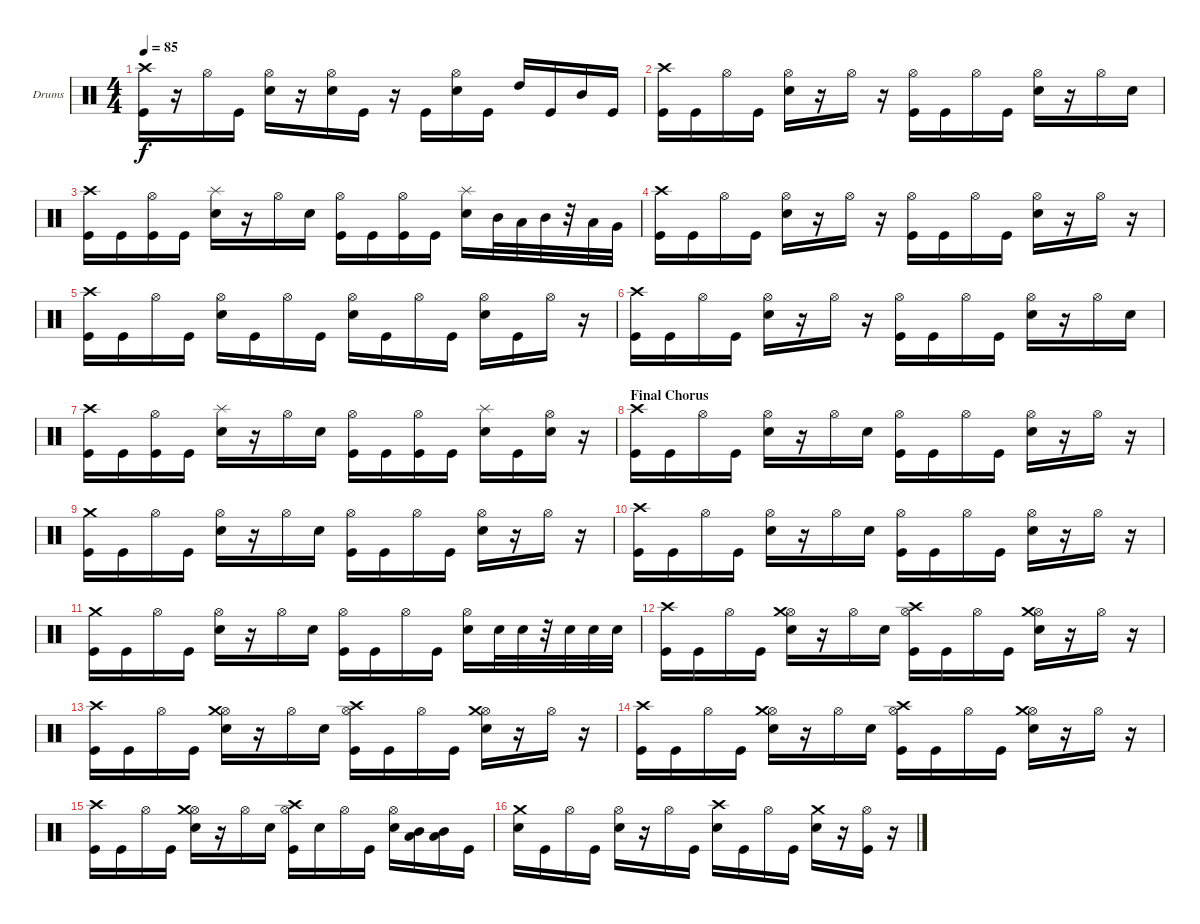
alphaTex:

\bracketExtendMode groupsimilarinstruments
\firstSystemTrackNameOrientation horizontal
\otherSystemsTrackNameOrientation horizontal
\track ("Drumkit" "Drums") {instrument percussion}
\staff {score}
\articulation defaults
\ts (4 4)
\tempo 85
\clef neutral
\ks c
("Kick (hit)" "Crash high (hit)").16{dy f} r.16 "Hi-Hat (open)".16 "Kick (hit)".16 ("Snare (hit) 2" "Hi-Hat (open)").16 r.16 ("Snare (hit) 2" "Hi-Hat (open)").16 "Kick (hit)".16 r.16 "Kick (hit)".16 ("Snare (hit) 2" "Hi-Hat (open)").16 "Kick (hit)".16 "High Tom (hit)".16 "Kick (hit)".16 "Mid Tom (hit)".16 "Kick (hit)".16 |
("Kick (hit)" "Crash high (hit)").16 "Kick (hit)".16 "Hi-Hat (open)".16 "Kick (hit)".16 ("Snare (hit) 2" "Hi-Hat (open)").16 r.16 "Hi-Hat (open)".16 r.16 ("Kick (hit)" "Hi-Hat (open)").16 "Kick (hit)".16 "Hi-Hat (open)".16 "Kick (hit)".16 ("Snare (hit) 2" "Hi-Hat (open)").16 r.16 "Hi-Hat (open)".16 "Snare (hit) 2".16 |
("Kick (hit)" "Crash high (hit)").16 "Kick (hit)".16 ("Kick (hit)" "Hi-Hat (open)").16 "Kick (hit)".16 ("Snare (hit) 2" "Splash (hit)").16 r.16 "Hi-Hat (open)".16 "Snare (hit) 2".16 ("Kick (hit)" "Hi-Hat (open)").16 "Kick (hit)".16 ("Kick (hit)" "Hi-Hat (open)").16 "Kick (hit)".16 ("Snare (hit) 2" "Splash (hit)").16 "Mid Tom (hit)".32 "Low Tom (hit)".32 "Mid Tom (hit)".32 r.32 "Low Tom (hit)".32 "Very Low Tom (hit)".32 |
("Kick (hit)" "Crash high (hit)").16 "Kick (hit)".16 "Hi-Hat (open)".16 "Kick (hit)".16 ("Snare (hit) 2" "Hi-Hat (open)").16 r.16 "Hi-Hat (open)".16 r.16 ("Kick (hit)" "Hi-Hat (open)").16 "Kick (hit)".16 "Hi-Hat (open)".16 "Kick (hit)".16 ("Snare (hit) 2" "Hi-Hat (open)").16 r.16 "Hi-Hat (open)".16 r.16 |
("Kick (hit)" "Crash high (hit)").16 "Kick (hit)".16 "Hi-Hat (open)".16 "Kick (hit)".16 ("Snare (hit) 2" "Hi-Hat (open)").16 "Kick (hit)".16 "Hi-Hat (open)".16 "Kick (hit)".16 ("Snare (hit) 2" "Hi-Hat (open)").16 "Kick (hit)".16 "Hi-Hat (open)".16 "Kick (hit)".16 ("Snare (hit) 2" "Hi-Hat (open)").16 "Kick (hit)".16 "Hi-Hat (open)".16 r.16 |
("Kick (hit)" "Crash high (hit)").16 "Kick (hit)".16 "Hi-Hat (open)".16 "Kick (hit)".16 ("Snare (hit) 2" "Hi-Hat (open)").16 r.16 "Hi-Hat (open)".16 r.16 ("Kick (hit)" "Hi-Hat (open)").16 "Kick (hit)".16 "Hi-Hat (open)".16 "Kick (hit)".16 ("Snare (hit) 2" "Hi-Hat (open)").16 r.16 "Hi-Hat (open)".16 "Snare (hit) 2".16 |
("Kick (hit)" "Crash high (hit)").16 "Kick (hit)".16 ("Kick (hit)" "Hi-Hat (open)").16 "Kick (hit)".16 ("Snare (hit) 2" "Splash (hit)").16 r.16 "Hi-Hat (open)".16 "Snare (hit) 2".16 ("Kick (hit)" "Hi-Hat (open)").16 "Kick (hit)".16 ("Kick (hit)" "Hi-Hat (open)").16 "Kick (hit)".16 ("Snare (hit) 2" "Splash (hit)").16 "Kick (hit)".16 ("Snare (hit) 2" "Hi-Hat (open)").16 r.16 |
\section ("" "Final Chorus")
("Kick (hit)" "Crash high (hit)").16 "Kick (hit)".16 "Hi-Hat (open)".16 "Kick (hit)".16 ("Snare (hit) 2" "Hi-Hat (open)").16 r.16 "Hi-Hat (open)".16 "Snare (hit) 2".16 ("Kick (hit)" "Hi-Hat (open)").16 "Kick (hit)".16 "Hi-Hat (open)".16 "Kick (hit)".16 ("Snare (hit) 2" "Hi-Hat (open)").16 r.16 "Hi-Hat (open)".16 r.16 |
("Kick (hit)" "Crash medium (hit)").16 "Kick (hit)".16 "Hi-Hat (open)".16 "Kick (hit)".16 ("Snare (hit) 2" "Hi-Hat (open)").16 r.16 "Hi-Hat (open)".16 "Snare (hit) 2".16 ("Kick (hit)" "Hi-Hat (open)").16 "Kick (hit)".16 "Hi-Hat (open)".16 "Kick (hit)".16 ("Snare (hit) 2" "Hi-Hat (open)").16 r.16 "Hi-Hat (open)".16 r.16 |
("Kick (hit)" "Crash high (hit)").16 "Kick (hit)".16 "Hi-Hat (open)".16 "Kick (hit)".16 ("Snare (hit) 2" "Hi-Hat (open)").16 r.16 "Hi-Hat (open)".16 "Snare (hit) 2".16 ("Kick (hit)" "Hi-Hat (open)").16 "Kick (hit)".16 "Hi-Hat (open)".16 "Kick (hit)".16 ("Snare (hit) 2" "Hi-Hat (open)").16 r.16 "Hi-Hat (open)".16 r.16 |
("Kick (hit)" "Crash medium (hit)").16 "Kick (hit)".16 "Hi-Hat (open)".16 "Kick (hit)".16 ("Snare (hit) 2" "Hi-Hat (open)").16 r.16 "Hi-Hat (open)".16 "Snare (hit) 2".16 ("Kick (hit)" "Hi-Hat (open)").16 "Kick (hit)".16 "Hi-Hat (open)".16 "Kick (hit)".16 ("Snare (hit) 2" "Hi-Hat (open)").16 "Snare (hit) 2".32 "Snare (hit) 2".32 r.32 "Snare (hit) 2".32 "Snare (hit) 2".32 "Snare (hit) 2".32 |
("Kick (hit)" "Crash high (hit)").16 "Kick (hit)".16 "Hi-Hat (open)".16 "Kick (hit)".16 ("Snare (hit) 2" "Hi-Hat (open)" "Crash medium (hit)").16 r.16 "Hi-Hat (open)".16 "Snare (hit) 2".16 ("Kick (hit)" "Hi-Hat (open)" "Crash high (hit)").16 "Kick (hit)".16 "Hi-Hat (open)".16 "Kick (hit)".16 ("Snare (hit) 2" "Hi-Hat (open)" "Crash medium (hit)").16 r.16 "Hi-Hat (open)".16 r.16 |
("Kick (hit)" "Crash high (hit)").16 "Kick (hit)".16 "Hi-Hat (open)".16 "Kick (hit)".16 ("Snare (hit) 2" "Hi-Hat (open)" "Crash medium (hit)").16 r.16 "Hi-Hat (open)".16 "Snare (hit) 2".16 ("Kick (hit)" "Hi-Hat (open)" "Crash high (hit)").16 "Kick (hit)".16 "Hi-Hat (open)".16 "Kick (hit)".16 ("Snare (hit) 2" "Hi-Hat (open)" "Crash medium (hit)").16 r.16 "Hi-Hat (open)".16 r.16 |
("Kick (hit)" "Crash high (hit)").16 "Kick (hit)".16 "Hi-Hat (open)".16 "Kick (hit)".16 ("Snare (hit) 2" "Hi-Hat (open)" "Crash medium (hit)").16 r.16 "Hi-Hat (open)".16 "Snare (hit) 2".16 ("Kick (hit)" "Hi-Hat (open)" "Crash high (hit)").16 "Kick (hit)".16 "Hi-Hat (open)".16 "Kick (hit)".16 ("Snare (hit) 2" "Hi-Hat (open)" "Crash medium (hit)").16 r.16 "Hi-Hat (open)".16 r.16 |
("Kick (hit)" "Crash high (hit)").16 "Kick (hit)".16 "Hi-Hat (open)".16 "Kick (hit)".16 ("Snare (hit) 2" "Hi-Hat (open)" "Crash medium (hit)").16 r.16 "Hi-Hat (open)".16 "Snare (hit) 2".16 ("Kick (hit)" "Hi-Hat (open)" "Crash high (hit)").16 "Snare (hit) 2".16 "Hi-Hat (open)".16 "Kick (hit)".16 ("Snare (hit) 2" "Hi-Hat (open)").16 ("Low Tom (hit)" "Mid Tom (hit)").16 ("Low Tom (hit)" "Mid Tom (hit)").16 "Kick (hit)".16 |
("Snare (hit) 2" "Crash medium (hit)").16 "Kick (hit)".16 "Hi-Hat (open)".16 "Kick (hit)".16 ("Snare (hit) 2" "Hi-Hat (open)").16 r.16 "Hi-Hat (open)".16 "Kick (hit)".16 ("Snare (hit) 2" "Crash high (hit)").16 "Kick (hit)".16 "Hi-Hat (open)".16 "Kick (hit)".16 ("Snare (hit) 2" "Crash medium (hit)").16 r.16 ("Kick (hit)" "Hi-Hat (open)").16 r.16
